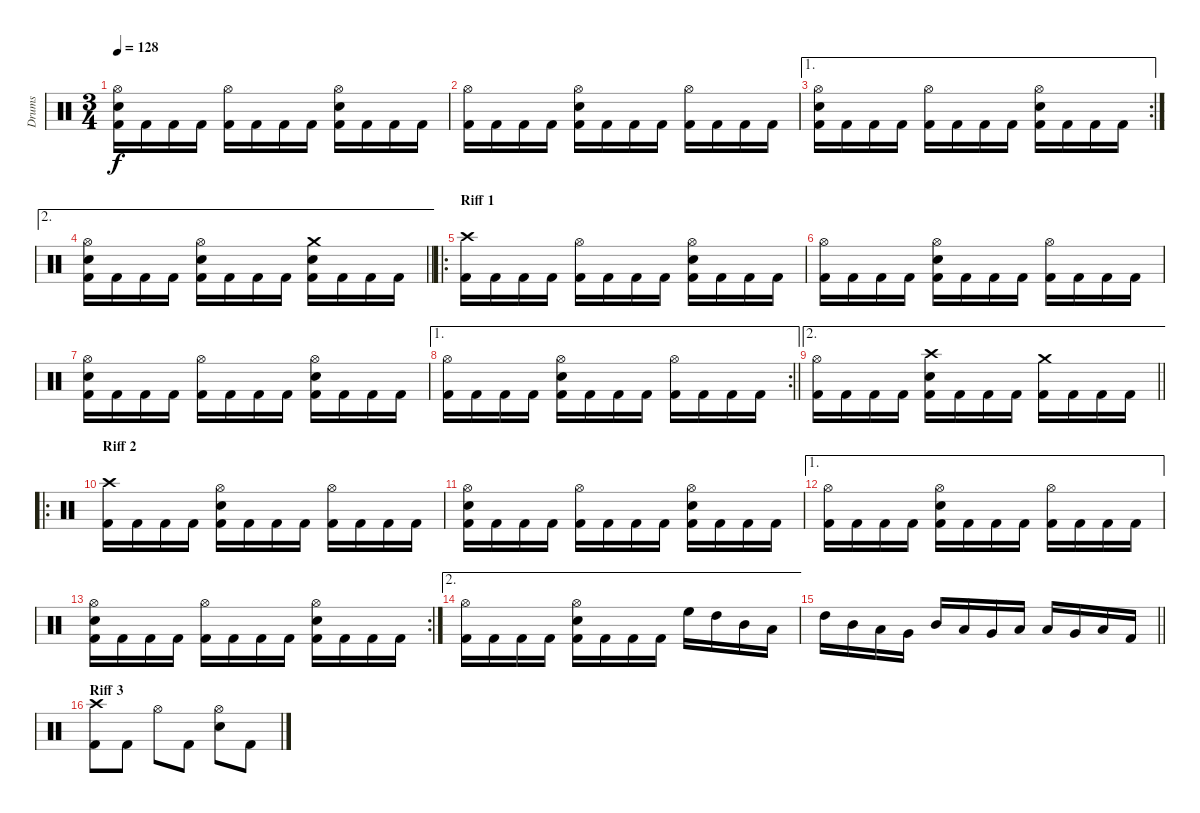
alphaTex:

\track ("Drums" "Drums") {instrument percussion}
\staff {score}
\articulation defaults
\ts (3 4)
\tempo 128
\clef neutral
\ks c
("Hi-Hat (open)" "Electric Snare (hit)" "Kick (hit) 2").16{dy f} "Kick (hit) 2".16 "Kick (hit) 2".16 "Kick (hit) 2".16 ("Hi-Hat (open)" "Kick (hit) 2").16 "Kick (hit) 2".16 "Kick (hit) 2".16 "Kick (hit) 2".16 ("Hi-Hat (open)" "Electric Snare (hit)" "Kick (hit) 2").16 "Kick (hit) 2".16 "Kick (hit) 2".16 "Kick (hit) 2".16 |
("Hi-Hat (open)" "Kick (hit) 2").16 "Kick (hit) 2".16 "Kick (hit) 2".16 "Kick (hit) 2".16 ("Hi-Hat (open)" "Electric Snare (hit)" "Kick (hit) 2").16 "Kick (hit) 2".16 "Kick (hit) 2".16 "Kick (hit) 2".16 ("Hi-Hat (open)" "Kick (hit) 2").16 "Kick (hit) 2".16 "Kick (hit) 2".16 "Kick (hit) 2".16 |
\ae 1
\rc 2
("Hi-Hat (open)" "Electric Snare (hit)" "Kick (hit) 2").16 "Kick (hit) 2".16 "Kick (hit) 2".16 "Kick (hit) 2".16 ("Hi-Hat (open)" "Kick (hit) 2").16 "Kick (hit) 2".16 "Kick (hit) 2".16 "Kick (hit) 2".16 ("Hi-Hat (open)" "Electric Snare (hit)" "Kick (hit) 2").16 "Kick (hit) 2".16 "Kick (hit) 2".16 "Kick (hit) 2".16 |
\ae 2
\barLineRight lightlight
("Hi-Hat (open)" "Electric Snare (hit)" "Kick (hit) 2").16 "Kick (hit) 2".16 "Kick (hit) 2".16 "Kick (hit) 2".16 ("Hi-Hat (open)" "Electric Snare (hit)" "Kick (hit) 2").16 "Kick (hit) 2".16 "Kick (hit) 2".16 "Kick (hit) 2".16 ("Crash medium (hit)" "Electric Snare (hit)" "Kick (hit) 2").16 "Kick (hit) 2".16 "Kick (hit) 2".16 "Kick (hit) 2".16 |
\ro
\section ("" "Riff 1")
("Crash high (hit)" "Kick (hit) 2").16 "Kick (hit) 2".16 "Kick (hit) 2".16 "Kick (hit) 2".16 ("Hi-Hat (open)" "Kick (hit) 2").16 "Kick (hit) 2".16 "Kick (hit) 2".16 "Kick (hit) 2".16 ("Hi-Hat (open)" "Electric Snare (hit)" "Kick (hit) 2").16 "Kick (hit) 2".16 "Kick (hit) 2".16 "Kick (hit) 2".16 |
("Hi-Hat (open)" "Kick (hit) 2").16 "Kick (hit) 2".16 "Kick (hit) 2".16 "Kick (hit) 2".16 ("Hi-Hat (open)" "Electric Snare (hit)" "Kick (hit) 2").16 "Kick (hit) 2".16 "Kick (hit) 2".16 "Kick (hit) 2".16 ("Hi-Hat (open)" "Kick (hit) 2").16 "Kick (hit) 2".16 "Kick (hit) 2".16 "Kick (hit) 2".16 |
("Hi-Hat (open)" "Electric Snare (hit)" "Kick (hit) 2").16 "Kick (hit) 2".16 "Kick (hit) 2".16 "Kick (hit) 2".16 ("Hi-Hat (open)" "Kick (hit) 2").16 "Kick (hit) 2".16 "Kick (hit) 2".16 "Kick (hit) 2".16 ("Hi-Hat (open)" "Electric Snare (hit)" "Kick (hit) 2").16 "Kick (hit) 2".16 "Kick (hit) 2".16 "Kick (hit) 2".16 |
\ae 1
\rc 2
\barLineRight lightlight
("Hi-Hat (open)" "Kick (hit) 2").16 "Kick (hit) 2".16 "Kick (hit) 2".16 "Kick (hit) 2".16 ("Hi-Hat (open)" "Electric Snare (hit)" "Kick (hit) 2").16 "Kick (hit) 2".16 "Kick (hit) 2".16 "Kick (hit) 2".16 ("Hi-Hat (open)" "Kick (hit) 2").16 "Kick (hit) 2".16 "Kick (hit) 2".16 "Kick (hit) 2".16 |
\ae 2
\barLineRight lightlight
("Hi-Hat (open)" "Kick (hit) 2").16 "Kick (hit) 2".16 "Kick (hit) 2".16 "Kick (hit) 2".16 ("Crash high (hit)" "Electric Snare (hit)" "Kick (hit) 2").16 "Kick (hit) 2".16 "Kick (hit) 2".16 "Kick (hit) 2".16 ("Crash medium (hit)" "Kick (hit) 2").16 "Kick (hit) 2".16 "Kick (hit) 2".16 "Kick (hit) 2".16 |
\ro
\section ("" "Riff 2")
("Crash high (hit)" "Kick (hit) 2").16 "Kick (hit) 2".16 "Kick (hit) 2".16 "Kick (hit) 2".16 ("Hi-Hat (open)" "Electric Snare (hit)" "Kick (hit) 2").16 "Kick (hit) 2".16 "Kick (hit) 2".16 "Kick (hit) 2".16 ("Hi-Hat (open)" "Kick (hit) 2").16 "Kick (hit) 2".16 "Kick (hit) 2".16 "Kick (hit) 2".16 |
("Hi-Hat (open)" "Electric Snare (hit)" "Kick (hit) 2").16 "Kick (hit) 2".16 "Kick (hit) 2".16 "Kick (hit) 2".16 ("Hi-Hat (open)" "Kick (hit) 2").16 "Kick (hit) 2".16 "Kick (hit) 2".16 "Kick (hit) 2".16 ("Hi-Hat (open)" "Electric Snare (hit)" "Kick (hit) 2").16 "Kick (hit) 2".16 "Kick (hit) 2".16 "Kick (hit) 2".16 |
\ae 1
("Hi-Hat (open)" "Kick (hit) 2").16 "Kick (hit) 2".16 "Kick (hit) 2".16 "Kick (hit) 2".16 ("Hi-Hat (open)" "Electric Snare (hit)" "Kick (hit) 2").16 "Kick (hit) 2".16 "Kick (hit) 2".16 "Kick (hit) 2".16 ("Hi-Hat (open)" "Kick (hit) 2").16 "Kick (hit) 2".16 "Kick (hit) 2".16 "Kick (hit) 2".16 |
\rc 2
("Hi-Hat (open)" "Electric Snare (hit)" "Kick (hit) 2").16 "Kick (hit) 2".16 "Kick (hit) 2".16 "Kick (hit) 2".16 ("Hi-Hat (open)" "Kick (hit) 2").16 "Kick (hit) 2".16 "Kick (hit) 2".16 "Kick (hit) 2".16 ("Hi-Hat (open)" "Electric Snare (hit)" "Kick (hit) 2").16 "Kick (hit) 2".16 "Kick (hit) 2".16 "Kick (hit) 2".16 |
\ae 2
("Hi-Hat (open)" "Kick (hit) 2").16 "Kick (hit) 2".16 "Kick (hit) 2".16 "Kick (hit) 2".16 ("Hi-Hat (open)" "Electric Snare (hit)" "Kick (hit) 2").16 "Kick (hit) 2".16 "Kick (hit) 2".16 "Kick (hit) 2".16 "High Floor Tom (hit)".16 "High Tom (hit)".16 "Mid Tom (hit)".16 "Low Tom (hit)".16 |
\barLineRight lightlight "High Tom (hit)".16 "Mid Tom (hit)".16 "Low Tom (hit)".16 "Very Low Tom (hit)".16 "Mid Tom (hit)".16 "Low Tom (hit)".16 "Very Low Tom (hit)".16 "Low Floor Tom (hit)".16 "Low Tom (hit)".16 "Very Low Tom (hit)".16 "Low Floor Tom (hit)".16 "Kick (hit) 2".16
|
\section ("" "Riff 3")
("Crash high (hit)" "Kick (hit) 2").8 "Kick (hit) 2".8 "Hi-Hat (open)".8 "Kick (hit) 2".8 ("Hi-Hat (open)" "Electric Snare (hit)").8 "Kick (hit) 2".8
